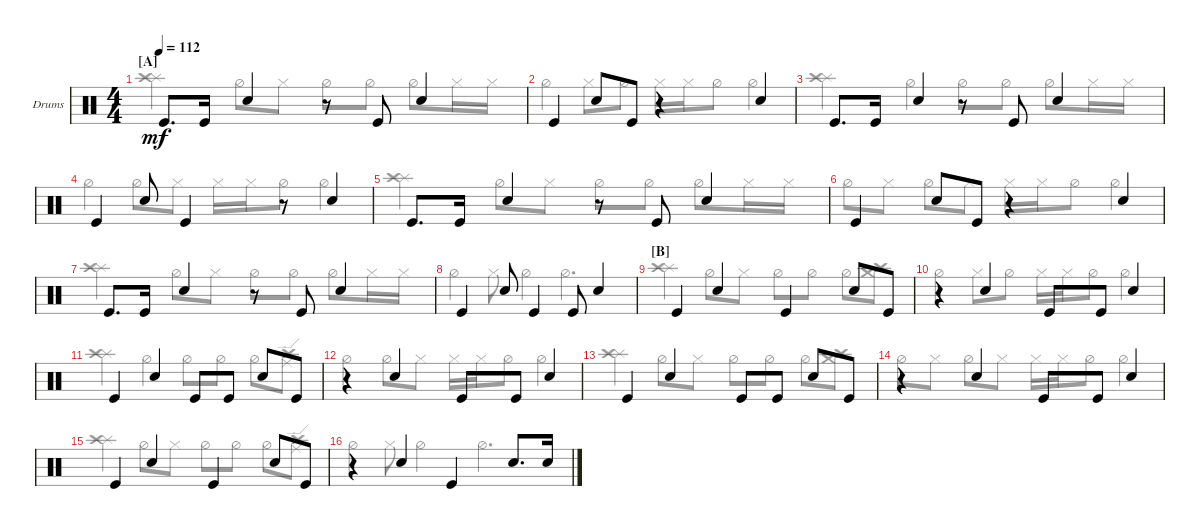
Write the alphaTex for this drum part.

\defaultSystemsLayout 4
\bracketExtendMode groupsimilarinstruments
\firstSystemTrackNameOrientation horizontal
\otherSystemsTrackNameOrientation horizontal
\track ("Drumkit" "Drums") {multiBarRest instrument percussion}
\staff {score}
\articulation defaults
\voice
\ts (4 4)
\section ("A" "")
\tempo 112
\clef neutral
\ks c "Kick (hit)".8{d dy mf} "Kick (hit)".16 "Snare (hit) 2".4
r.8 "Kick (hit)".8 "Snare (hit) 2".4 |
"Kick (hit)".4 "Snare (hit) 2".8 "Kick (hit)".8 r.4 "Snare (hit) 2".4 |
"Kick (hit)".8{d} "Kick (hit)".16 "Snare (hit) 2".4 r.8 "Kick (hit)".8 "Snare (hit) 2".4 |
"Kick (hit)".4 "Snare (hit) 2".8 "Kick (hit)".4 r.8 "Snare (hit) 2".4 |
"Kick (hit)".8{d} "Kick (hit)".16 "Snare (hit) 2".4 r.8 "Kick (hit)".8 "Snare (hit) 2".4 |
"Kick (hit)".4 "Snare (hit) 2".8 "Kick (hit)".8 r.4 "Snare (hit) 2".4 |
"Kick (hit)".8{d} "Kick (hit)".16 "Snare (hit) 2".4 r.8 "Kick (hit)".8 "Snare (hit) 2".4 |
"Kick (hit)".4 "Snare (hit) 2".8 "Kick (hit)".4 "Kick (hit)".8 "Snare (hit) 2".4 |
\section ("B" "")
"Kick (hit)".4 "Snare (hit) 2".4 "Kick (hit)".4 "Snare (hit) 2".8 "Kick (hit)".8 |
r.4 "Snare (hit) 2".4 "Kick (hit)".8 "Kick (hit)".8 "Snare (hit) 2".4 |
"Kick (hit)".4 "Snare (hit) 2".4 "Kick (hit)".8 "Kick (hit)".8 "Snare (hit) 2".8 "Kick (hit)".8 |
r.4 "Snare (hit) 2".4 "Kick (hit)".8 "Kick (hit)".8 "Snare (hit) 2".4 |
"Kick (hit)".4 "Snare (hit) 2".4 "Kick (hit)".8 "Kick (hit)".8 "Snare (hit) 2".8 "Kick (hit)".8 |
r.4 "Snare (hit) 2".4 "Kick (hit)".8 "Kick (hit)".8 "Snare (hit) 2".4 |
"Kick (hit)".4 "Snare (hit) 2".4 "Kick (hit)".4 "Snare (hit) 2".8 "Kick (hit)".8 |
r.4 "Snare (hit) 2".4 "Kick (hit)".4 "Snare (hit) 2".8{d} "Snare (hit) 2".16
\voice
\clef neutral
\ottava regular
\simile none
\ks c
("Splash (hit)" "Crash high (hit)").4{dy mf} "Hi-Hat (half)".8 "Hi-Hat (closed)".8 "Hi-Hat (half)".8 "Hi-Hat (half)".8 "Hi-Hat (half)".8 "Hi-Hat (closed)".16 "Hi-Hat (closed)".16 |
"Hi-Hat (half)".4 "Hi-Hat (closed)".8 "Hi-Hat (half)".8 "Hi-Hat (closed)".16 "Hi-Hat (closed)".16 "Hi-Hat (half)".8 "Hi-Hat (half)".4 |
("Splash (hit)" "Crash high (hit)").4 "Hi-Hat (half)".4 "Hi-Hat (half)".8 "Hi-Hat (half)".8 "Hi-Hat (half)".8 "Hi-Hat (closed)".16 "Hi-Hat (closed)".16 |
"Hi-Hat (half)".4 "Hi-Hat (half)".8 "Hi-Hat (closed)".8 "Hi-Hat (closed)".16 "Hi-Hat (closed)".16 "Hi-Hat (half)".8 "Hi-Hat (half)".4 |
("Splash (hit)" "Crash high (hit)").4 "Hi-Hat (half)".8 "Hi-Hat (closed)".8 "Hi-Hat (half)".8 "Hi-Hat (half)".8 "Hi-Hat (half)".8 "Hi-Hat (closed)".16 "Hi-Hat (closed)".16 |
"Hi-Hat (half)".8 "Hi-Hat (closed)".8 "Hi-Hat (half)".8 "Hi-Hat (closed)".8 "Hi-Hat (closed)".16 "Hi-Hat (closed)".16 "Hi-Hat (half)".8 "Hi-Hat (half)".4 |
("Splash (hit)" "Crash high (hit)").4 "Hi-Hat (half)".8 "Hi-Hat (closed)".8 "Hi-Hat (half)".8 "Hi-Hat (half)".8 "Hi-Hat (half)".8 "Hi-Hat (closed)".16 "Hi-Hat (closed)".16 |
"Hi-Hat (half)".4 "Hi-Hat (closed)".8 "Hi-Hat (half)".4 "Hi-Hat (half)".4{d} |
("Splash (hit)" "Crash high (hit)").4 "Hi-Hat (half)".8 "Hi-Hat (closed)".8 "Hi-Hat (half)".8 "Hi-Hat (half)".8 "Hi-Hat (half)".8 ("Crash medium (hit)" "Crash high (hit)").8 |
"Hi-Hat (half)".4 "Hi-Hat (closed)".8 "Hi-Hat (half)".8 "Hi-Hat (closed)".16 "Hi-Hat (closed)".16 "Hi-Hat (half)".8 "Hi-Hat (half)".4 |
("Splash (hit)" "Crash high (hit)").4 "Hi-Hat (half)".4 "Hi-Hat (half)".8 "Hi-Hat (half)".8 "Hi-Hat (half)".8 ("Crash high (hit)" "Ride (edge)").8 |
"Hi-Hat (half)".4 "Hi-Hat (half)".8 "Hi-Hat (closed)".8 "Hi-Hat (closed)".16 "Hi-Hat (closed)".16 "Hi-Hat (half)".8 "Hi-Hat (half)".4 |
("Splash (hit)" "Crash high (hit)").4 "Hi-Hat (half)".8 "Hi-Hat (closed)".8 "Hi-Hat (half)".8 "Hi-Hat (half)".8 "Hi-Hat (half)".8 ("Crash medium (hit)" "Crash high (hit)").8 |
"Hi-Hat (half)".8 "Hi-Hat (closed)".8 "Hi-Hat (half)".8 "Hi-Hat (closed)".8 "Hi-Hat (closed)".16 "Hi-Hat (closed)".16 "Hi-Hat (half)".8 "Hi-Hat (half)".4 |
("Splash (hit)" "Crash high (hit)").4 "Hi-Hat (half)".8 "Hi-Hat (closed)".8 "Hi-Hat (half)".8 "Hi-Hat (half)".8 "Hi-Hat (half)".8 ("Crash high (hit)" "Ride (edge)").8 |
"Hi-Hat (half)".4 "Hi-Hat (closed)".8 "Hi-Hat (half)".4 "Hi-Hat (half)".4{d}
